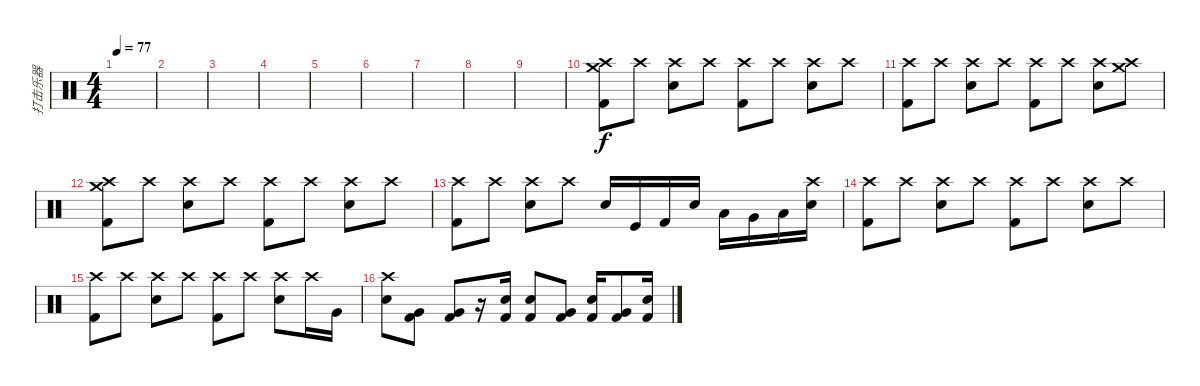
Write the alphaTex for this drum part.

\track ("打击乐器" "打击乐器") {instrument percussion}
\staff {score}
\articulation defaults
\ts (4 4)
\tempo 77
\clef neutral
\ks c
|
|
|
|
|
|
|
|
|
("Crash high (hit)" "Crash medium (hit)" "Kick (hit) 2").8 "Crash high (hit)".8 ("Crash high (hit)" "Snare (hit) 2").8 "Crash high (hit)".8 ("Crash high (hit)" "Kick (hit) 2").8 "Crash high (hit)".8 ("Crash high (hit)" "Snare (hit) 2").8 "Crash high (hit)".8 |
("Crash high (hit)" "Kick (hit) 2").8 "Crash high (hit)".8 ("Crash high (hit)" "Snare (hit) 2").8 "Crash high (hit)".8 ("Crash high (hit)" "Kick (hit) 2").8 "Crash high (hit)".8 ("Crash high (hit)" "Snare (hit) 2").8 ("Crash high (hit)" "Crash medium (hit)").8 |
("Crash high (hit)" "Crash medium (hit)" "Kick (hit) 2").8 "Crash high (hit)".8 ("Crash high (hit)" "Snare (hit) 2").8 "Crash high (hit)".8 ("Crash high (hit)" "Kick (hit) 2").8 "Crash high (hit)".8 ("Crash high (hit)" "Snare (hit) 2").8 "Crash high (hit)".8 |
("Crash high (hit)" "Kick (hit) 2").8 "Crash high (hit)".8 ("Crash high (hit)" "Snare (hit) 2").8 "Crash high (hit)".8 "Snare (hit) 2".16 "Kick (hit)".16 "Kick (hit) 2".16 "Snare (hit) 2".16 "Low Floor Tom (hit)".16 "Very Low Tom (hit)".16 "Low Tom (hit)".16 ("Crash high (hit)" "Snare (hit) 2").16 |
("Crash high (hit)" "Kick (hit) 2").8 "Crash high (hit)".8 ("Crash high (hit)" "Snare (hit) 2").8 "Crash high (hit)".8 ("Crash high (hit)" "Kick (hit) 2").8 "Crash high (hit)".8 ("Crash high (hit)" "Snare (hit) 2").8 "Crash high (hit)".8 |
("Crash high (hit)" "Kick (hit) 2").8 "Crash high (hit)".8 ("Crash high (hit)" "Snare (hit) 2").8 "Crash high (hit)".8 ("Crash high (hit)" "Kick (hit) 2").8 "Crash high (hit)".8 ("Crash high (hit)" "Snare (hit) 2").8 "Crash high (hit)".16 "Very Low Tom (hit)".16 |
("Snare (hit) 2" "Crash high (hit)").8 ("Kick (hit) 2" "Very Low Tom (hit)").8 ("Kick (hit) 2" "Very Low Tom (hit)").8 r.16 ("Kick (hit) 2" "Snare (hit) 2").16 ("Kick (hit) 2" "Snare (hit) 2").8 ("Kick (hit) 2" "Very Low Tom (hit)").8 ("Kick (hit) 2" "Snare (hit) 2").16 ("Kick (hit) 2" "Very Low Tom (hit)").8 ("Kick (hit) 2" "Snare (hit) 2").16
